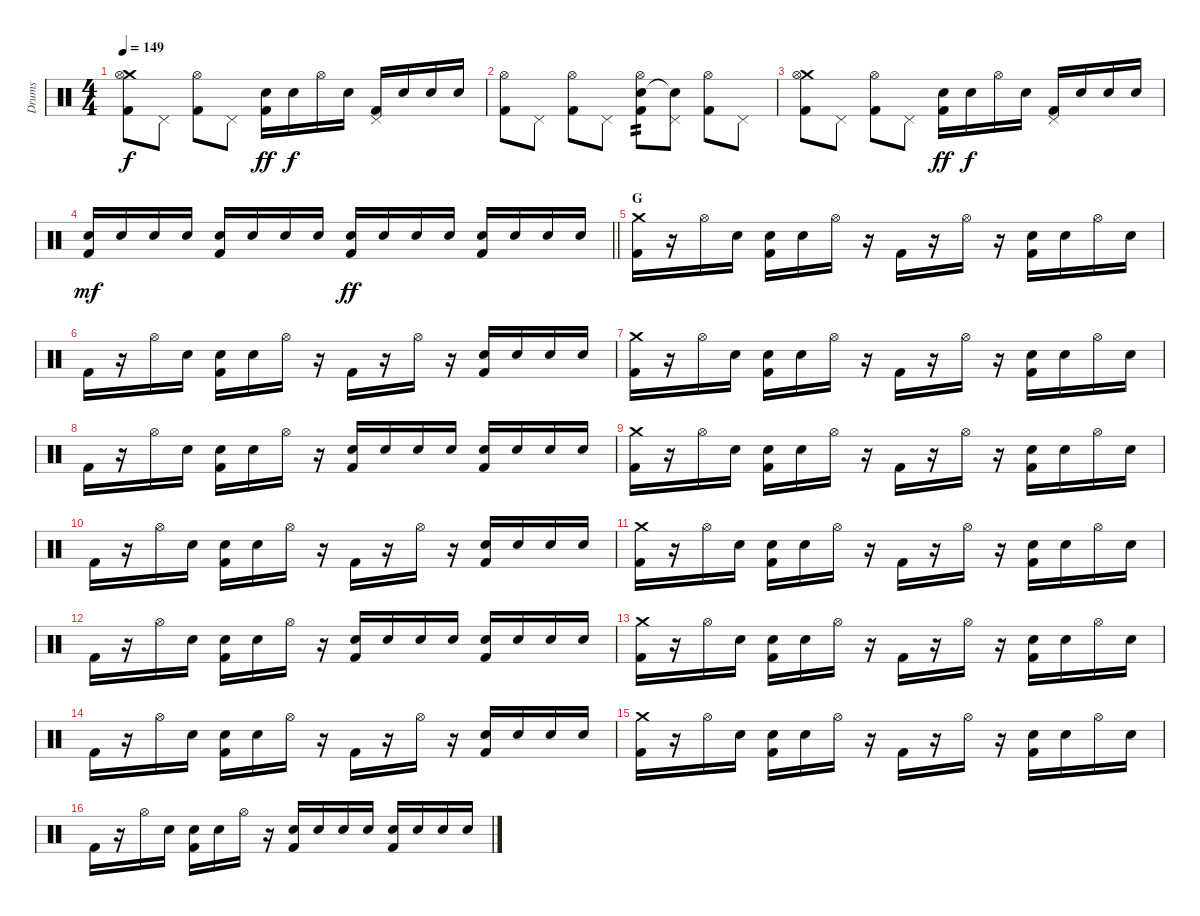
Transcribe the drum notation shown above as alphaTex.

\track ("Drums" "Drums") {instrument percussion}
\staff {score}
\articulation defaults
\ts (4 4)
\tempo 149
\clef neutral
\ks c
("Crash medium (hit)" "Hi-Hat (open)" "Kick (hit) 2").8{dy f} "Pedal Hi-Hat (hit)".8 ("Hi-Hat (open)" "Kick (hit) 2").8 "Pedal Hi-Hat (hit)".8 ("Electric Snare (hit)" "Kick (hit) 2").16{dy ff} "Electric Snare (hit)".16{dy f} "Hi-Hat (open)".16 "Electric Snare (hit)".16 ("Pedal Hi-Hat (hit)" "Kick (hit) 2").16 "Electric Snare (hit)".16 "Electric Snare (hit)".16 "Electric Snare (hit)".16 |
("Hi-Hat (open)" "Kick (hit) 2").8 "Pedal Hi-Hat (hit)".8 ("Hi-Hat (open)" "Kick (hit) 2").8 "Pedal Hi-Hat (hit)".8 ("Hi-Hat (open)" "Electric Snare (hit)" "Kick (hit) 2").8{tp 2} ("Pedal Hi-Hat (hit)" "Snare (hit)"{t}).8 ("Hi-Hat (open)" "Kick (hit) 2").8 "Pedal Hi-Hat (hit)".8 |
("Crash medium (hit)" "Hi-Hat (open)" "Kick (hit) 2").8 "Pedal Hi-Hat (hit)".8 ("Hi-Hat (open)" "Kick (hit) 2").8 "Pedal Hi-Hat (hit)".8 ("Electric Snare (hit)" "Kick (hit) 2").16{dy ff} "Electric Snare (hit)".16{dy f} "Hi-Hat (open)".16 "Electric Snare (hit)".16 ("Pedal Hi-Hat (hit)" "Kick (hit) 2").16 "Electric Snare (hit)".16 "Electric Snare (hit)".16 "Electric Snare (hit)".16 |
\barLineRight lightlight
("Electric Snare (hit)" "Kick (hit) 2").16{dy mf} "Electric Snare (hit)".16 "Electric Snare (hit)".16 "Electric Snare (hit)".16 ("Electric Snare (hit)" "Kick (hit) 2").16 "Electric Snare (hit)".16 "Electric Snare (hit)".16 "Electric Snare (hit)".16 ("Electric Snare (hit)" "Kick (hit) 2").16{dy ff} "Electric Snare (hit)".16 "Electric Snare (hit)".16 "Electric Snare (hit)".16 ("Electric Snare (hit)" "Kick (hit) 2").16 "Electric Snare (hit)".16 "Electric Snare (hit)".16 "Electric Snare (hit)".16 |
\section ("" "G")
("Crash medium (hit)" "Kick (hit) 2").16 r.16 "Hi-Hat (open)".16 "Electric Snare (hit)".16 ("Electric Snare (hit)" "Kick (hit) 2").16 "Electric Snare (hit)".16 "Hi-Hat (open)".16 r.16 "Kick (hit) 2".16 r.16 "Hi-Hat (open)".16 r.16 ("Electric Snare (hit)" "Kick (hit) 2").16 "Electric Snare (hit)".16 "Hi-Hat (open)".16 "Electric Snare (hit)".16 |
"Kick (hit) 2".16 r.16 "Hi-Hat (open)".16 "Electric Snare (hit)".16 ("Electric Snare (hit)" "Kick (hit) 2").16 "Electric Snare (hit)".16 "Hi-Hat (open)".16 r.16 "Kick (hit) 2".16 r.16 "Hi-Hat (open)".16 r.16 ("Electric Snare (hit)" "Kick (hit) 2").16 "Electric Snare (hit)".16 "Electric Snare (hit)".16 "Electric Snare (hit)".16 |
("Crash medium (hit)" "Kick (hit) 2").16 r.16 "Hi-Hat (open)".16 "Electric Snare (hit)".16 ("Electric Snare (hit)" "Kick (hit) 2").16 "Electric Snare (hit)".16 "Hi-Hat (open)".16 r.16 "Kick (hit) 2".16 r.16 "Hi-Hat (open)".16 r.16 ("Electric Snare (hit)" "Kick (hit) 2").16 "Electric Snare (hit)".16 "Hi-Hat (open)".16 "Electric Snare (hit)".16 |
"Kick (hit) 2".16 r.16 "Hi-Hat (open)".16 "Electric Snare (hit)".16 ("Electric Snare (hit)" "Kick (hit) 2").16 "Electric Snare (hit)".16 "Hi-Hat (open)".16 r.16 ("Electric Snare (hit)" "Kick (hit) 2").16 "Electric Snare (hit)".16 "Electric Snare (hit)".16 "Electric Snare (hit)".16 ("Electric Snare (hit)" "Kick (hit) 2").16 "Electric Snare (hit)".16 "Electric Snare (hit)".16 "Electric Snare (hit)".16 |
("Crash medium (hit)" "Kick (hit) 2").16 r.16 "Hi-Hat (open)".16 "Electric Snare (hit)".16 ("Electric Snare (hit)" "Kick (hit) 2").16 "Electric Snare (hit)".16 "Hi-Hat (open)".16 r.16 "Kick (hit) 2".16 r.16 "Hi-Hat (open)".16 r.16 ("Electric Snare (hit)" "Kick (hit) 2").16 "Electric Snare (hit)".16 "Hi-Hat (open)".16 "Electric Snare (hit)".16 |
"Kick (hit) 2".16 r.16 "Hi-Hat (open)".16 "Electric Snare (hit)".16 ("Electric Snare (hit)" "Kick (hit) 2").16 "Electric Snare (hit)".16 "Hi-Hat (open)".16 r.16 "Kick (hit) 2".16 r.16 "Hi-Hat (open)".16 r.16 ("Electric Snare (hit)" "Kick (hit) 2").16 "Electric Snare (hit)".16 "Electric Snare (hit)".16 "Electric Snare (hit)".16 |
("Crash medium (hit)" "Kick (hit) 2").16 r.16 "Hi-Hat (open)".16 "Electric Snare (hit)".16 ("Electric Snare (hit)" "Kick (hit) 2").16 "Electric Snare (hit)".16 "Hi-Hat (open)".16 r.16 "Kick (hit) 2".16 r.16 "Hi-Hat (open)".16 r.16 ("Electric Snare (hit)" "Kick (hit) 2").16 "Electric Snare (hit)".16 "Hi-Hat (open)".16 "Electric Snare (hit)".16 |
"Kick (hit) 2".16 r.16 "Hi-Hat (open)".16 "Electric Snare (hit)".16 ("Electric Snare (hit)" "Kick (hit) 2").16 "Electric Snare (hit)".16 "Hi-Hat (open)".16 r.16 ("Electric Snare (hit)" "Kick (hit) 2").16 "Electric Snare (hit)".16 "Electric Snare (hit)".16 "Electric Snare (hit)".16 ("Electric Snare (hit)" "Kick (hit) 2").16 "Electric Snare (hit)".16 "Electric Snare (hit)".16 "Electric Snare (hit)".16 |
("Crash medium (hit)" "Kick (hit) 2").16 r.16 "Hi-Hat (open)".16 "Electric Snare (hit)".16 ("Electric Snare (hit)" "Kick (hit) 2").16 "Electric Snare (hit)".16 "Hi-Hat (open)".16 r.16 "Kick (hit) 2".16 r.16 "Hi-Hat (open)".16 r.16 ("Electric Snare (hit)" "Kick (hit) 2").16 "Electric Snare (hit)".16 "Hi-Hat (open)".16 "Electric Snare (hit)".16 |
"Kick (hit) 2".16 r.16 "Hi-Hat (open)".16 "Electric Snare (hit)".16 ("Electric Snare (hit)" "Kick (hit) 2").16 "Electric Snare (hit)".16 "Hi-Hat (open)".16 r.16 "Kick (hit) 2".16 r.16 "Hi-Hat (open)".16 r.16 ("Electric Snare (hit)" "Kick (hit) 2").16 "Electric Snare (hit)".16 "Electric Snare (hit)".16 "Electric Snare (hit)".16 |
("Crash medium (hit)" "Kick (hit) 2").16 r.16 "Hi-Hat (open)".16 "Electric Snare (hit)".16 ("Electric Snare (hit)" "Kick (hit) 2").16 "Electric Snare (hit)".16 "Hi-Hat (open)".16 r.16 "Kick (hit) 2".16 r.16 "Hi-Hat (open)".16 r.16 ("Electric Snare (hit)" "Kick (hit) 2").16 "Electric Snare (hit)".16 "Hi-Hat (open)".16 "Electric Snare (hit)".16 |
"Kick (hit) 2".16 r.16 "Hi-Hat (open)".16 "Electric Snare (hit)".16 ("Electric Snare (hit)" "Kick (hit) 2").16 "Electric Snare (hit)".16 "Hi-Hat (open)".16 r.16 ("Electric Snare (hit)" "Kick (hit) 2").16 "Electric Snare (hit)".16 "Electric Snare (hit)".16 "Electric Snare (hit)".16 ("Electric Snare (hit)" "Kick (hit) 2").16 "Electric Snare (hit)".16 "Electric Snare (hit)".16 "Electric Snare (hit)".16
